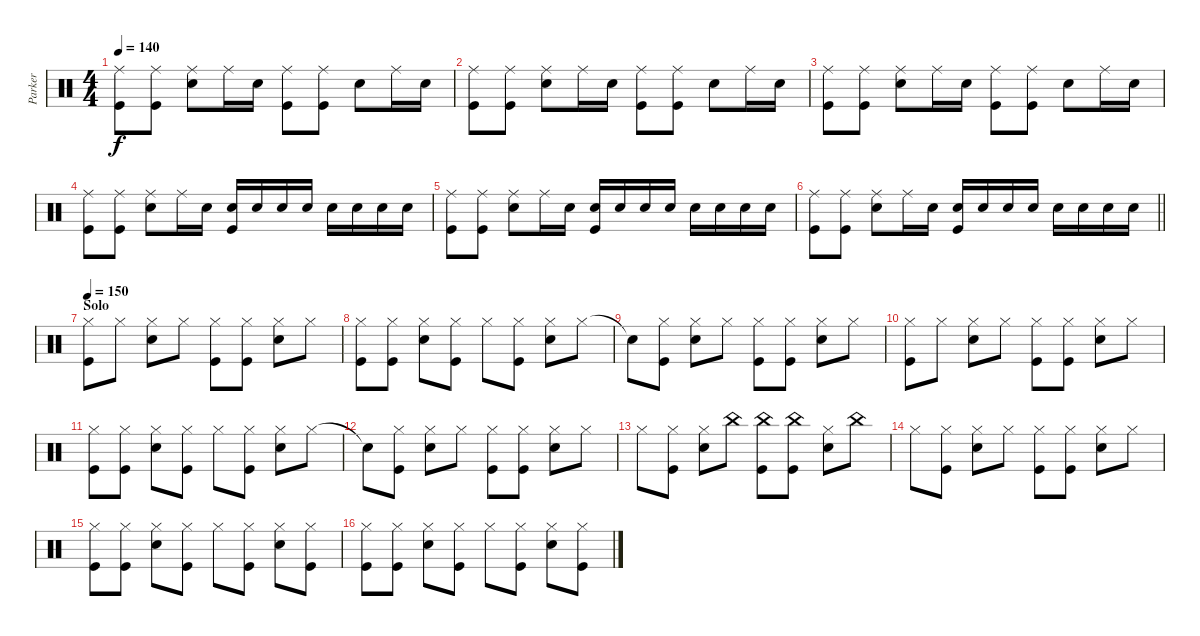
\track ("Parker" "Parker") {instrument percussion}
\staff {score}
\articulation defaults
\ts (4 4)
\tempo 140
\clef neutral
\ks c
("Ride (middle)" "Kick (hit)").8{dy f} ("Ride (middle)" "Kick (hit)").8 ("Ride (middle)" "Electric Snare (hit)").8 "Ride (middle)".16 "Electric Snare (hit)".16 ("Ride (middle)" "Kick (hit)").8 ("Ride (middle)" "Kick (hit)").8 "Electric Snare (hit)".8 "Ride (middle)".16 "Electric Snare (hit)".16 |
("Ride (middle)" "Kick (hit)").8 ("Ride (middle)" "Kick (hit)").8 ("Ride (middle)" "Electric Snare (hit)").8 "Ride (middle)".16 "Electric Snare (hit)".16 ("Ride (middle)" "Kick (hit)").8 ("Ride (middle)" "Kick (hit)").8 "Electric Snare (hit)".8 "Ride (middle)".16 "Electric Snare (hit)".16 |
("Ride (middle)" "Kick (hit)").8 ("Ride (middle)" "Kick (hit)").8 ("Ride (middle)" "Electric Snare (hit)").8 "Ride (middle)".16 "Electric Snare (hit)".16 ("Ride (middle)" "Kick (hit)").8 ("Ride (middle)" "Kick (hit)").8 "Electric Snare (hit)".8 "Ride (middle)".16 "Electric Snare (hit)".16 |
("Ride (middle)" "Kick (hit)").8 ("Ride (middle)" "Kick (hit)").8 ("Ride (middle)" "Electric Snare (hit)").8 "Ride (middle)".16 "Electric Snare (hit)".16 ("Electric Snare (hit)" "Kick (hit)").16 "Electric Snare (hit)".16 "Electric Snare (hit)".16 "Electric Snare (hit)".16 "Electric Snare (hit)".16 "Electric Snare (hit)".16 "Electric Snare (hit)".16 "Electric Snare (hit)".16 |
("Ride (middle)" "Kick (hit)").8 ("Ride (middle)" "Kick (hit)").8 ("Ride (middle)" "Electric Snare (hit)").8 "Ride (middle)".16 "Electric Snare (hit)".16 ("Electric Snare (hit)" "Kick (hit)").16 "Electric Snare (hit)".16 "Electric Snare (hit)".16 "Electric Snare (hit)".16 "Electric Snare (hit)".16 "Electric Snare (hit)".16 "Electric Snare (hit)".16 "Electric Snare (hit)".16 |
\barLineRight lightlight
("Ride (middle)" "Kick (hit)").8 ("Ride (middle)" "Kick (hit)").8 ("Ride (middle)" "Electric Snare (hit)").8 "Ride (middle)".16 "Electric Snare (hit)".16 ("Electric Snare (hit)" "Kick (hit)").16 "Electric Snare (hit)".16 "Electric Snare (hit)".16 "Electric Snare (hit)".16 "Electric Snare (hit)".16 "Electric Snare (hit)".16 "Electric Snare (hit)".16 "Electric Snare (hit)".16 |
\section ("" "Solo")
\tempo 150
("Hi-Hat (closed)" "Kick (hit)").8 "Hi-Hat (closed)".8 ("Hi-Hat (closed)" "Electric Snare (hit)").8 "Hi-Hat (closed)".8 ("Hi-Hat (closed)" "Kick (hit)").8 ("Hi-Hat (closed)" "Kick (hit)").8 ("Hi-Hat (closed)" "Electric Snare (hit)").8 "Hi-Hat (closed)".8 |
("Hi-Hat (closed)" "Kick (hit)").8 ("Hi-Hat (closed)" "Kick (hit)").8 ("Hi-Hat (closed)" "Electric Snare (hit)").8 ("Hi-Hat (closed)" "Kick (hit)").8 "Hi-Hat (closed)".8 ("Hi-Hat (closed)" "Kick (hit)").8 ("Hi-Hat (closed)" "Electric Snare (hit)").8 "Hi-Hat (closed)".8 |
"Snare (hit)"{t}.8 ("Hi-Hat (closed)" "Kick (hit)").8 ("Hi-Hat (closed)" "Electric Snare (hit)").8 "Hi-Hat (closed)".8 ("Hi-Hat (closed)" "Kick (hit)").8 ("Hi-Hat (closed)" "Kick (hit)").8 ("Hi-Hat (closed)" "Electric Snare (hit)").8 "Hi-Hat (closed)".8 |
("Hi-Hat (closed)" "Kick (hit)").8 "Hi-Hat (closed)".8 ("Hi-Hat (closed)" "Electric Snare (hit)").8 "Hi-Hat (closed)".8 ("Hi-Hat (closed)" "Kick (hit)").8 ("Hi-Hat (closed)" "Kick (hit)").8 ("Hi-Hat (closed)" "Electric Snare (hit)").8 "Hi-Hat (closed)".8 |
("Hi-Hat (closed)" "Kick (hit)").8 ("Hi-Hat (closed)" "Kick (hit)").8 ("Hi-Hat (closed)" "Electric Snare (hit)").8 ("Hi-Hat (closed)" "Kick (hit)").8 "Hi-Hat (closed)".8 ("Hi-Hat (closed)" "Kick (hit)").8 ("Hi-Hat (closed)" "Electric Snare (hit)").8 "Hi-Hat (closed)".8 |
"Snare (hit)"{t}.8 ("Hi-Hat (closed)" "Kick (hit)").8 ("Hi-Hat (closed)" "Electric Snare (hit)").8 "Hi-Hat (closed)".8 ("Hi-Hat (closed)" "Kick (hit)").8 ("Hi-Hat (closed)" "Kick (hit)").8 ("Hi-Hat (closed)" "Electric Snare (hit)").8 "Hi-Hat (closed)".8 |
"Hi-Hat (closed)".8 ("Hi-Hat (closed)" "Kick (hit)").8 ("Hi-Hat (closed)" "Electric Snare (hit)").8 "China (hit)".8 ("China (hit)" "Kick (hit)").8 ("China (hit)" "Kick (hit)").8 ("Hi-Hat (closed)" "Electric Snare (hit)").8 "China (hit)".8 |
"Hi-Hat (closed)".8 ("Hi-Hat (closed)" "Kick (hit)").8 ("Hi-Hat (closed)" "Electric Snare (hit)").8 "Hi-Hat (closed)".8 ("Hi-Hat (closed)" "Kick (hit)").8 ("Hi-Hat (closed)" "Kick (hit)").8 ("Hi-Hat (closed)" "Electric Snare (hit)").8 "Hi-Hat (closed)".8 |
("Hi-Hat (closed)" "Kick (hit)").8 ("Hi-Hat (closed)" "Kick (hit)").8 ("Hi-Hat (closed)" "Electric Snare (hit)").8 ("Hi-Hat (closed)" "Kick (hit)").8 "Hi-Hat (closed)".8 ("Hi-Hat (closed)" "Kick (hit)").8 ("Hi-Hat (closed)" "Electric Snare (hit)").8 ("Hi-Hat (closed)" "Kick (hit)").8 |
("Hi-Hat (closed)" "Kick (hit)").8 ("Hi-Hat (closed)" "Kick (hit)").8 ("Hi-Hat (closed)" "Electric Snare (hit)").8 ("Hi-Hat (closed)" "Kick (hit)").8 "Hi-Hat (closed)".8 ("Hi-Hat (closed)" "Kick (hit)").8 ("Hi-Hat (closed)" "Electric Snare (hit)").8 ("Hi-Hat (closed)" "Kick (hit)").8
